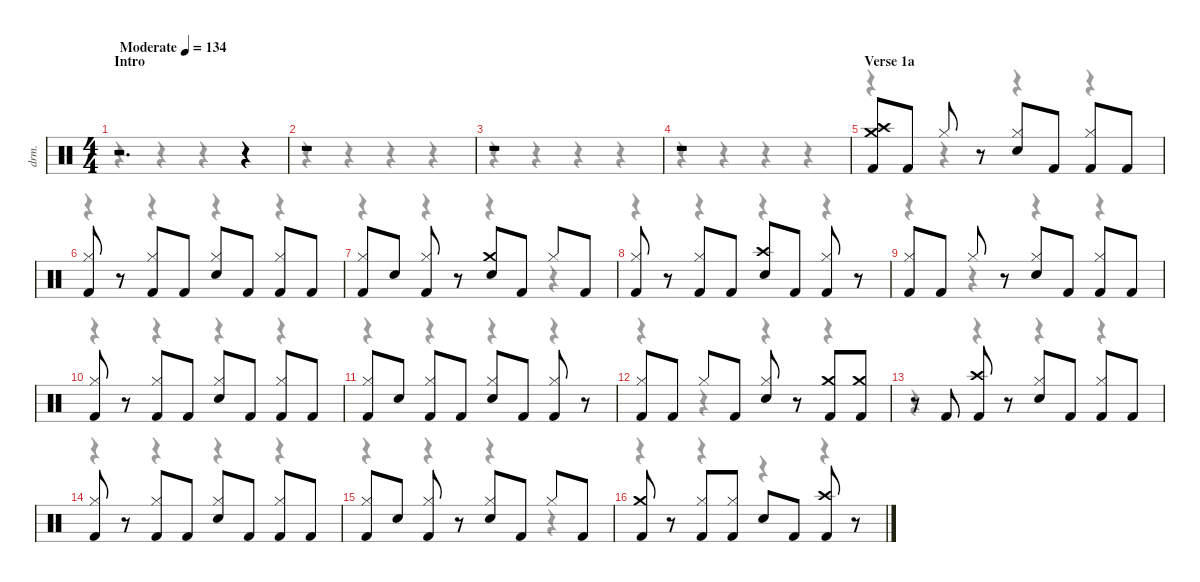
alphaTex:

\defaultSystemsLayout 4
\hideDynamics
\bracketExtendMode nobrackets
\track ("Alex Ballew" "drm.") {instrument percussion}
\staff {score}
\articulation defaults
\voice
\ts (4 4)
\beaming (8 2 2 2 2)
\section ("" "Intro ")
\tempo (134 "Moderate")
\clef neutral
\ks c
r.2{d dy f} r.4 |
r.1 |
r.1 |
r.1 |
\section ("" "Verse 1a")
("Crash medium (hit)" "Crash high (hit)" "Kick (hit) 2").8 "Kick (hit) 2".8 "Hi-Hat (closed)".8 r.8 ("Hi-Hat (closed)" "Snare (hit) 2").8 "Kick (hit) 2".8 ("Hi-Hat (closed)" "Kick (hit) 2").8 "Kick (hit) 2".8 |
("Hi-Hat (closed)" "Kick (hit) 2").8 r.8 ("Hi-Hat (closed)" "Kick (hit) 2").8 "Kick (hit) 2".8 ("Hi-Hat (closed)" "Snare (hit) 2").8 "Kick (hit) 2".8 ("Hi-Hat (closed)" "Kick (hit) 2").8 "Kick (hit) 2".8 |
("Hi-Hat (closed)" "Kick (hit) 2").8 "Snare (hit) 2".8 ("Hi-Hat (closed)" "Kick (hit) 2").8 r.8 ("Crash medium (hit)" "Snare (hit) 2").8 "Kick (hit) 2".8 "Hi-Hat (closed)".8 "Kick (hit) 2".8 |
("Hi-Hat (closed)" "Kick (hit) 2").8 r.8 ("Hi-Hat (closed)" "Kick (hit) 2").8 "Kick (hit) 2".8 ("Crash high (hit)" "Snare (hit) 2").8 "Kick (hit) 2".8 ("Hi-Hat (closed)" "Kick (hit) 2").8 r.8 |
("Hi-Hat (closed)" "Kick (hit) 2").8 "Kick (hit) 2".8 "Hi-Hat (closed)".8 r.8 ("Hi-Hat (closed)" "Snare (hit) 2").8 "Kick (hit) 2".8 ("Hi-Hat (closed)" "Kick (hit) 2").8 "Kick (hit) 2".8 |
("Hi-Hat (closed)" "Kick (hit) 2").8 r.8 ("Hi-Hat (closed)" "Kick (hit) 2").8 "Kick (hit) 2".8 ("Hi-Hat (closed)" "Snare (hit) 2").8 "Kick (hit) 2".8 ("Hi-Hat (closed)" "Kick (hit) 2").8 "Kick (hit) 2".8 |
("Hi-Hat (closed)" "Kick (hit) 2").8 "Snare (hit) 2".8 ("Hi-Hat (closed)" "Kick (hit) 2").8 "Kick (hit) 2".8 ("Hi-Hat (closed)" "Snare (hit) 2").8 "Kick (hit) 2".8 ("Hi-Hat (closed)" "Kick (hit) 2").8 r.8 |
("Hi-Hat (closed)" "Kick (hit) 2").8 "Kick (hit) 2".8 "Hi-Hat (closed)".8 "Kick (hit) 2".8 ("Hi-Hat (closed)" "Snare (hit) 2").8 r.8 ("Crash medium (hit)" "Kick (hit) 2").8 ("Crash medium (hit)" "Kick (hit) 2").8 |
r.8 "Kick (hit) 2".8 ("Crash high (hit)" "Kick (hit) 2").8 r.8 ("Hi-Hat (closed)" "Snare (hit) 2").8 "Kick (hit) 2".8 ("Hi-Hat (closed)" "Kick (hit) 2").8 "Kick (hit) 2".8 |
("Hi-Hat (closed)" "Kick (hit) 2").8 r.8 ("Hi-Hat (closed)" "Kick (hit) 2").8 "Kick (hit) 2".8 ("Hi-Hat (closed)" "Snare (hit) 2").8 "Kick (hit) 2".8 ("Hi-Hat (closed)" "Kick (hit) 2").8 "Kick (hit) 2".8 |
("Hi-Hat (closed)" "Kick (hit) 2").8 "Snare (hit) 2".8 ("Hi-Hat (closed)" "Kick (hit) 2").8 r.8 ("Hi-Hat (closed)" "Snare (hit) 2").8 "Kick (hit) 2".8 "Hi-Hat (closed)".8 "Kick (hit) 2".8 |
("Crash medium (hit)" "Kick (hit) 2").8 r.8 ("Hi-Hat (closed)" "Kick (hit) 2").8 ("Hi-Hat (closed)" "Kick (hit) 2").8 "Snare (hit) 2".8 "Kick (hit) 2".8 ("Crash high (hit)" "Kick (hit) 2").8 r.8
\voice
\clef neutral
\ottava regular
\simile none
\ks c
r.4{dy mf} r.4 r.4 r.4 |
r.4 r.4 r.4 r.4 |
r.4 r.4 r.4 r.4 |
r.4 r.4 r.4 r.4 |
r.4 r.4 r.4 r.4 |
r.4 r.4 r.4 r.4 |
r.4 r.4 r.4 r.4 |
r.4 r.4 r.4 r.4 |
r.4 r.4 r.4 r.4 |
r.4 r.4 r.4 r.4 |
r.4 r.4 r.4 r.4 |
r.4 r.4 r.4 r.4 |
r.4 r.4 r.4 r.4 |
r.4 r.4 r.4 r.4 |
r.4 r.4 r.4 r.4 |
r.4 r.4 r.4 r.4
